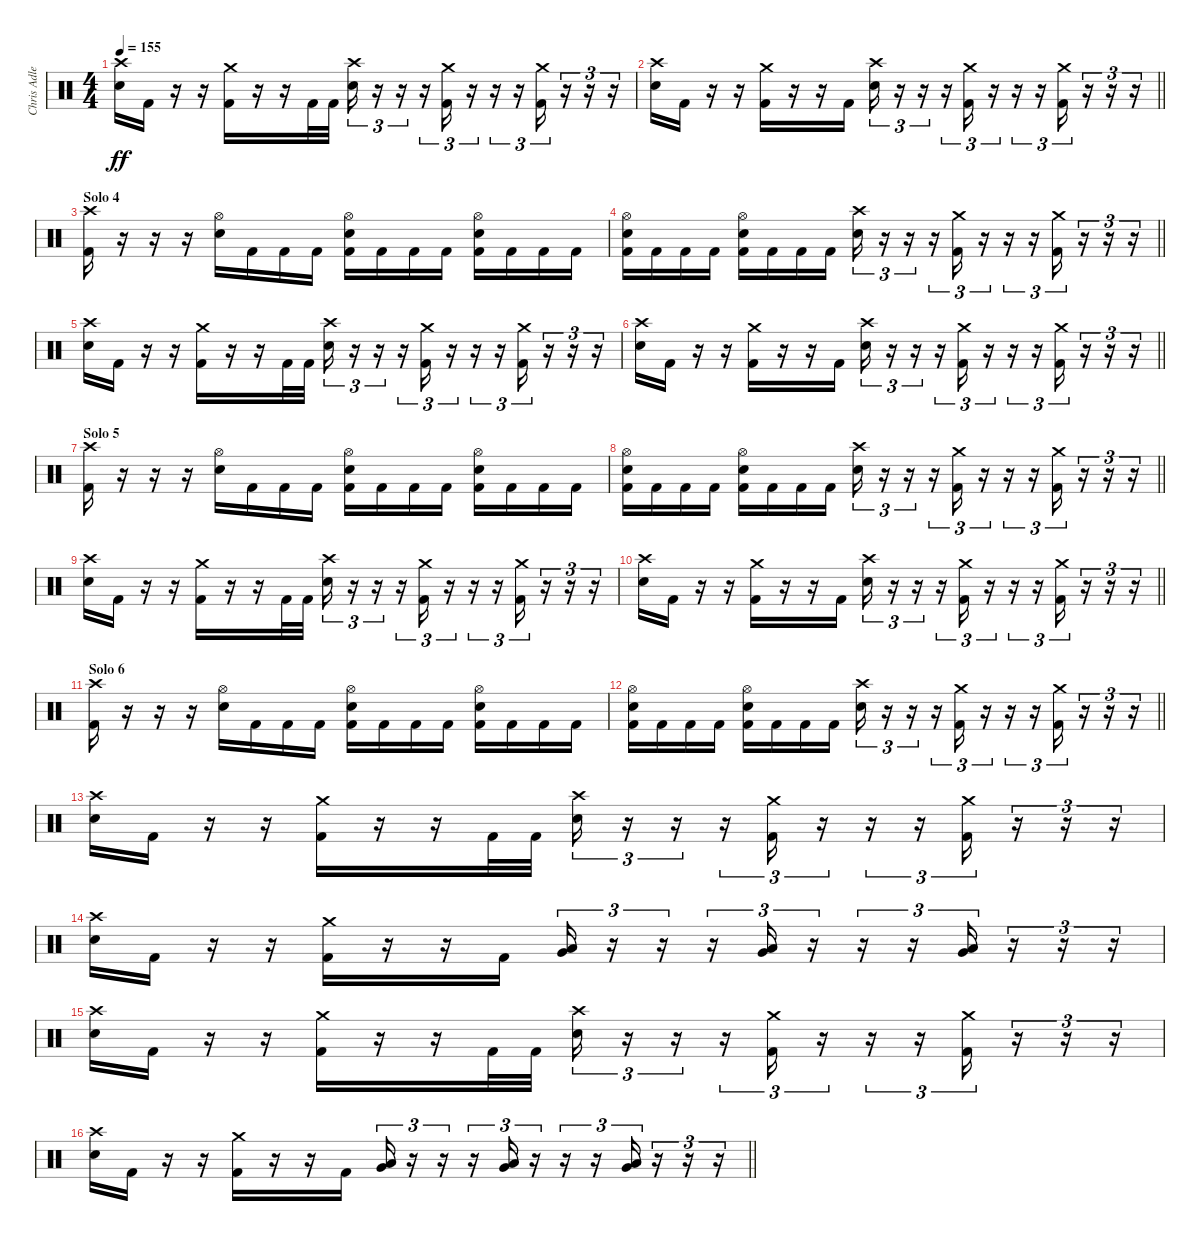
\track ("Chris Adler" "Chris Adle") {instrument percussion}
\staff {score}
\articulation defaults
\ts (4 4)
\tempo 155
\clef neutral
\ks c
("Crash high (hit)" "Snare (hit) 2").16{dy ff} "Kick (hit) 2".16 r.16 r.16 ("Crash medium (hit)" "Kick (hit) 2").16 r.16 r.16 "Kick (hit) 2".32 "Kick (hit) 2".32 ("Crash high (hit)" "Snare (hit) 2").16{tu (3 2)} r.16{tu (3 2)} r.16{tu (3 2)} r.16{tu (3 2)} ("Crash medium (hit)" "Kick (hit) 2").16{tu (3 2)} r.16{tu (3 2)} r.16{tu (3 2)} r.16{tu (3 2)} ("Crash medium (hit)" "Kick (hit) 2").16{tu (3 2)} r.16{tu (3 2)} r.16{tu (3 2)} r.16{tu (3 2)} |
\barLineRight lightlight
("Crash high (hit)" "Snare (hit) 2").16 "Kick (hit) 2".16 r.16 r.16 ("Crash medium (hit)" "Kick (hit) 2").16 r.16 r.16 "Kick (hit) 2".16 ("Crash high (hit)" "Snare (hit) 2").16{tu (3 2)} r.16{tu (3 2)} r.16{tu (3 2)} r.16{tu (3 2)} ("Crash medium (hit)" "Kick (hit) 2").16{tu (3 2)} r.16{tu (3 2)} r.16{tu (3 2)} r.16{tu (3 2)} ("Crash medium (hit)" "Kick (hit) 2").16{tu (3 2)} r.16{tu (3 2)} r.16{tu (3 2)} r.16{tu (3 2)} |
\section ("" "Solo 4")
("Crash high (hit)" "Kick (hit) 2").16 r.16 r.16 r.16 ("Hi-Hat (open)" "Snare (hit) 2").16 "Kick (hit) 2".16 "Kick (hit) 2".16 "Kick (hit) 2".16 ("Hi-Hat (open)" "Snare (hit) 2" "Kick (hit) 2").16 "Kick (hit) 2".16 "Kick (hit) 2".16 "Kick (hit) 2".16 ("Hi-Hat (open)" "Snare (hit) 2" "Kick (hit) 2").16 "Kick (hit) 2".16 "Kick (hit) 2".16 "Kick (hit) 2".16 |
\barLineRight lightlight
("Hi-Hat (open)" "Snare (hit) 2" "Kick (hit) 2").16 "Kick (hit) 2".16 "Kick (hit) 2".16 "Kick (hit) 2".16 ("Hi-Hat (open)" "Snare (hit) 2" "Kick (hit) 2").16 "Kick (hit) 2".16 "Kick (hit) 2".16 "Kick (hit) 2".16 ("Crash high (hit)" "Snare (hit) 2").16{tu (3 2)} r.16{tu (3 2)} r.16{tu (3 2)} r.16{tu (3 2)} ("Crash medium (hit)" "Kick (hit) 2").16{tu (3 2)} r.16{tu (3 2)} r.16{tu (3 2)} r.16{tu (3 2)} ("Crash medium (hit)" "Kick (hit) 2").16{tu (3 2)} r.16{tu (3 2)} r.16{tu (3 2)} r.16{tu (3 2)} |
("Crash high (hit)" "Snare (hit) 2").16 "Kick (hit) 2".16 r.16 r.16 ("Crash medium (hit)" "Kick (hit) 2").16 r.16 r.16 "Kick (hit) 2".32 "Kick (hit) 2".32 ("Crash high (hit)" "Snare (hit) 2").16{tu (3 2)} r.16{tu (3 2)} r.16{tu (3 2)} r.16{tu (3 2)} ("Crash medium (hit)" "Kick (hit) 2").16{tu (3 2)} r.16{tu (3 2)} r.16{tu (3 2)} r.16{tu (3 2)} ("Crash medium (hit)" "Kick (hit) 2").16{tu (3 2)} r.16{tu (3 2)} r.16{tu (3 2)} r.16{tu (3 2)} |
\barLineRight lightlight
("Crash high (hit)" "Snare (hit) 2").16 "Kick (hit) 2".16 r.16 r.16 ("Crash medium (hit)" "Kick (hit) 2").16 r.16 r.16 "Kick (hit) 2".16 ("Crash high (hit)" "Snare (hit) 2").16{tu (3 2)} r.16{tu (3 2)} r.16{tu (3 2)} r.16{tu (3 2)} ("Crash medium (hit)" "Kick (hit) 2").16{tu (3 2)} r.16{tu (3 2)} r.16{tu (3 2)} r.16{tu (3 2)} ("Crash medium (hit)" "Kick (hit) 2").16{tu (3 2)} r.16{tu (3 2)} r.16{tu (3 2)} r.16{tu (3 2)} |
\section ("" "Solo 5")
("Crash high (hit)" "Kick (hit) 2").16 r.16 r.16 r.16 ("Hi-Hat (open)" "Snare (hit) 2").16 "Kick (hit) 2".16 "Kick (hit) 2".16 "Kick (hit) 2".16 ("Hi-Hat (open)" "Snare (hit) 2" "Kick (hit) 2").16 "Kick (hit) 2".16 "Kick (hit) 2".16 "Kick (hit) 2".16 ("Hi-Hat (open)" "Snare (hit) 2" "Kick (hit) 2").16 "Kick (hit) 2".16 "Kick (hit) 2".16 "Kick (hit) 2".16 |
\barLineRight lightlight
("Hi-Hat (open)" "Snare (hit) 2" "Kick (hit) 2").16 "Kick (hit) 2".16 "Kick (hit) 2".16 "Kick (hit) 2".16 ("Hi-Hat (open)" "Snare (hit) 2" "Kick (hit) 2").16 "Kick (hit) 2".16 "Kick (hit) 2".16 "Kick (hit) 2".16 ("Crash high (hit)" "Snare (hit) 2").16{tu (3 2)} r.16{tu (3 2)} r.16{tu (3 2)} r.16{tu (3 2)} ("Crash medium (hit)" "Kick (hit) 2").16{tu (3 2)} r.16{tu (3 2)} r.16{tu (3 2)} r.16{tu (3 2)} ("Crash medium (hit)" "Kick (hit) 2").16{tu (3 2)} r.16{tu (3 2)} r.16{tu (3 2)} r.16{tu (3 2)} |
("Crash high (hit)" "Snare (hit) 2").16 "Kick (hit) 2".16 r.16 r.16 ("Crash medium (hit)" "Kick (hit) 2").16 r.16 r.16 "Kick (hit) 2".32 "Kick (hit) 2".32 ("Crash high (hit)" "Snare (hit) 2").16{tu (3 2)} r.16{tu (3 2)} r.16{tu (3 2)} r.16{tu (3 2)} ("Crash medium (hit)" "Kick (hit) 2").16{tu (3 2)} r.16{tu (3 2)} r.16{tu (3 2)} r.16{tu (3 2)} ("Crash medium (hit)" "Kick (hit) 2").16{tu (3 2)} r.16{tu (3 2)} r.16{tu (3 2)} r.16{tu (3 2)} |
\barLineRight lightlight
("Crash high (hit)" "Snare (hit) 2").16 "Kick (hit) 2".16 r.16 r.16 ("Crash medium (hit)" "Kick (hit) 2").16 r.16 r.16 "Kick (hit) 2".16 ("Crash high (hit)" "Snare (hit) 2").16{tu (3 2)} r.16{tu (3 2)} r.16{tu (3 2)} r.16{tu (3 2)} ("Crash medium (hit)" "Kick (hit) 2").16{tu (3 2)} r.16{tu (3 2)} r.16{tu (3 2)} r.16{tu (3 2)} ("Crash medium (hit)" "Kick (hit) 2").16{tu (3 2)} r.16{tu (3 2)} r.16{tu (3 2)} r.16{tu (3 2)} |
\section ("" "Solo 6")
("Crash high (hit)" "Kick (hit) 2").16 r.16 r.16 r.16 ("Hi-Hat (open)" "Snare (hit) 2").16 "Kick (hit) 2".16 "Kick (hit) 2".16 "Kick (hit) 2".16 ("Hi-Hat (open)" "Snare (hit) 2" "Kick (hit) 2").16 "Kick (hit) 2".16 "Kick (hit) 2".16 "Kick (hit) 2".16 ("Hi-Hat (open)" "Snare (hit) 2" "Kick (hit) 2").16 "Kick (hit) 2".16 "Kick (hit) 2".16 "Kick (hit) 2".16 |
\barLineRight lightlight
("Hi-Hat (open)" "Snare (hit) 2" "Kick (hit) 2").16 "Kick (hit) 2".16 "Kick (hit) 2".16 "Kick (hit) 2".16 ("Hi-Hat (open)" "Snare (hit) 2" "Kick (hit) 2").16 "Kick (hit) 2".16 "Kick (hit) 2".16 "Kick (hit) 2".16 ("Crash high (hit)" "Snare (hit) 2").16{tu (3 2)} r.16{tu (3 2)} r.16{tu (3 2)} r.16{tu (3 2)} ("Crash medium (hit)" "Kick (hit) 2").16{tu (3 2)} r.16{tu (3 2)} r.16{tu (3 2)} r.16{tu (3 2)} ("Crash medium (hit)" "Kick (hit) 2").16{tu (3 2)} r.16{tu (3 2)} r.16{tu (3 2)} r.16{tu (3 2)} |
("Crash high (hit)" "Snare (hit) 2").16 "Kick (hit) 2".16 r.16 r.16 ("Crash medium (hit)" "Kick (hit) 2").16 r.16 r.16 "Kick (hit) 2".32 "Kick (hit) 2".32 ("Crash high (hit)" "Snare (hit) 2").16{tu (3 2)} r.16{tu (3 2)} r.16{tu (3 2)} r.16{tu (3 2)} ("Crash medium (hit)" "Kick (hit) 2").16{tu (3 2)} r.16{tu (3 2)} r.16{tu (3 2)} r.16{tu (3 2)} ("Crash medium (hit)" "Kick (hit) 2").16{tu (3 2)} r.16{tu (3 2)} r.16{tu (3 2)} r.16{tu (3 2)} |
("Crash high (hit)" "Snare (hit) 2").16 "Kick (hit) 2".16 r.16 r.16 ("Crash medium (hit)" "Kick (hit) 2").16 r.16 r.16 "Kick (hit) 2".16 ("Low Tom (hit)" "Very Low Tom (hit)").16{tu (3 2)} r.16{tu (3 2)} r.16{tu (3 2)} r.16{tu (3 2)} ("Low Tom (hit)" "Very Low Tom (hit)").16{tu (3 2)} r.16{tu (3 2)} r.16{tu (3 2)} r.16{tu (3 2)} ("Low Tom (hit)" "Very Low Tom (hit)").16{tu (3 2)} r.16{tu (3 2)} r.16{tu (3 2)} r.16{tu (3 2)} |
("Crash high (hit)" "Snare (hit) 2").16 "Kick (hit) 2".16 r.16 r.16 ("Crash medium (hit)" "Kick (hit) 2").16 r.16 r.16 "Kick (hit) 2".32 "Kick (hit) 2".32 ("Crash high (hit)" "Snare (hit) 2").16{tu (3 2)} r.16{tu (3 2)} r.16{tu (3 2)} r.16{tu (3 2)} ("Crash medium (hit)" "Kick (hit) 2").16{tu (3 2)} r.16{tu (3 2)} r.16{tu (3 2)} r.16{tu (3 2)} ("Crash medium (hit)" "Kick (hit) 2").16{tu (3 2)} r.16{tu (3 2)} r.16{tu (3 2)} r.16{tu (3 2)} |
\barLineRight lightlight
("Crash high (hit)" "Snare (hit) 2").16 "Kick (hit) 2".16 r.16 r.16 ("Crash medium (hit)" "Kick (hit) 2").16 r.16 r.16 "Kick (hit) 2".16 ("Low Tom (hit)" "Very Low Tom (hit)").16{tu (3 2)} r.16{tu (3 2)} r.16{tu (3 2)} r.16{tu (3 2)} ("Low Tom (hit)" "Very Low Tom (hit)").16{tu (3 2)} r.16{tu (3 2)} r.16{tu (3 2)} r.16{tu (3 2)} ("Low Tom (hit)" "Very Low Tom (hit)").16{tu (3 2)} r.16{tu (3 2)} r.16{tu (3 2)} r.16{tu (3 2)}
